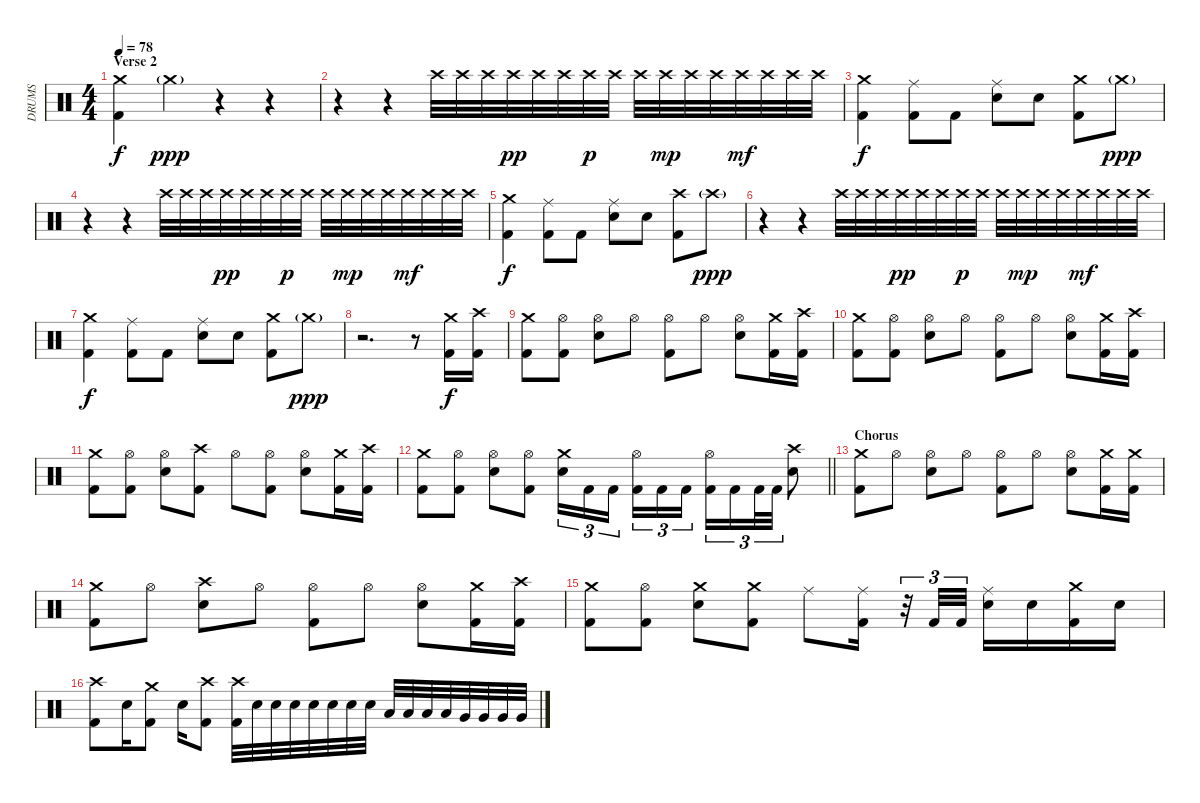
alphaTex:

\track ("DRUMS" "DRUMS") {instrument percussion}
\staff {score}
\articulation defaults
\ts (4 4)
\section ("" "Verse 2")
\tempo 78
\clef neutral
\ks c
("Crash medium (hit)" "Kick (hit) 2").4{dy f} "Crash medium (hit)"{g}.4{dy ppp} r.4 r.4 |
r.4 r.4 "Crash high (hit)".32 "Crash high (hit)".32 "Crash high (hit)".32 "Crash high (hit)".32{dy pp} "Crash high (hit)".32 "Crash high (hit)".32 "Crash high (hit)".32{dy p} "Crash high (hit)".32 "Crash high (hit)".32 "Crash high (hit)".32{dy mp} "Crash high (hit)".32 "Crash high (hit)".32 "Crash high (hit)".32{dy mf} "Crash high (hit)".32 "Crash high (hit)".32 "Crash high (hit)".32 |
("Crash medium (hit)" "Kick (hit) 2").4{dy f} ("Ride (middle)" "Kick (hit) 2").8 "Kick (hit) 2".8 ("Ride (middle)" "Snare (hit) 2").8 "Snare (hit) 2".8 ("Crash medium (hit)" "Kick (hit) 2").8 "Crash medium (hit)"{g}.8{dy ppp} |
r.4 r.4 "Crash high (hit)".32 "Crash high (hit)".32 "Crash high (hit)".32 "Crash high (hit)".32{dy pp} "Crash high (hit)".32 "Crash high (hit)".32 "Crash high (hit)".32{dy p} "Crash high (hit)".32 "Crash high (hit)".32 "Crash high (hit)".32{dy mp} "Crash high (hit)".32 "Crash high (hit)".32 "Crash high (hit)".32{dy mf} "Crash high (hit)".32 "Crash high (hit)".32 "Crash high (hit)".32 |
("Crash medium (hit)" "Kick (hit) 2").4{dy f} ("Ride (middle)" "Kick (hit) 2").8 "Kick (hit) 2".8 ("Ride (middle)" "Snare (hit) 2").8 "Snare (hit) 2".8 ("Crash high (hit)" "Kick (hit) 2").8 "Crash high (hit)"{g}.8{dy ppp} |
r.4 r.4 "Crash high (hit)".32 "Crash high (hit)".32 "Crash high (hit)".32 "Crash high (hit)".32{dy pp} "Crash high (hit)".32 "Crash high (hit)".32 "Crash high (hit)".32{dy p} "Crash high (hit)".32 "Crash high (hit)".32 "Crash high (hit)".32{dy mp} "Crash high (hit)".32 "Crash high (hit)".32 "Crash high (hit)".32{dy mf} "Crash high (hit)".32 "Crash high (hit)".32 "Crash high (hit)".32 |
("Crash medium (hit)" "Kick (hit) 2").4{dy f} ("Ride (middle)" "Kick (hit) 2").8 "Kick (hit) 2".8 ("Ride (middle)" "Snare (hit) 2").8 "Snare (hit) 2".8 ("Crash medium (hit)" "Kick (hit) 2").8 "Crash medium (hit)"{g}.8{dy ppp} |
r.2{d} r.8 ("Crash medium (hit)" "Kick (hit) 2").16{dy f} ("Crash high (hit)" "Kick (hit) 2").16 |
("Crash medium (hit)" "Kick (hit) 2").8 ("Hi-Hat (open)" "Kick (hit) 2").8 ("Hi-Hat (open)" "Snare (hit) 2").8 "Hi-Hat (open)".8 ("Hi-Hat (open)" "Kick (hit) 2").8 "Hi-Hat (open)".8 ("Hi-Hat (open)" "Snare (hit) 2").8 ("Crash medium (hit)" "Kick (hit) 2").16 ("Crash high (hit)" "Kick (hit) 2").16 |
("Crash medium (hit)" "Kick (hit) 2").8 ("Hi-Hat (open)" "Kick (hit) 2").8 ("Hi-Hat (open)" "Snare (hit) 2").8 "Hi-Hat (open)".8 ("Hi-Hat (open)" "Kick (hit) 2").8 "Hi-Hat (open)".8 ("Hi-Hat (open)" "Snare (hit) 2").8 ("Crash medium (hit)" "Kick (hit) 2").16 ("Crash high (hit)" "Kick (hit) 2").16 |
("Crash medium (hit)" "Kick (hit) 2").8 ("Hi-Hat (open)" "Kick (hit) 2").8 ("Hi-Hat (open)" "Snare (hit) 2").8 ("Crash high (hit)" "Kick (hit) 2").8 "Hi-Hat (open)".8 ("Hi-Hat (open)" "Kick (hit) 2").8 ("Hi-Hat (open)" "Snare (hit) 2").8 ("Crash medium (hit)" "Kick (hit) 2").16 ("Crash high (hit)" "Kick (hit) 2").16 |
\barLineRight lightlight
("Crash medium (hit)" "Kick (hit) 2").8 ("Hi-Hat (open)" "Kick (hit) 2").8 ("Hi-Hat (open)" "Snare (hit) 2").8 ("Hi-Hat (open)" "Kick (hit) 2").8 ("Crash medium (hit)" "Snare (hit) 2").16{tu (3 2)} "Kick (hit) 2".16{tu (3 2)} "Kick (hit) 2".16{tu (3 2) beam splitsecondary} ("Hi-Hat (open)" "Kick (hit) 2").16{tu (3 2)} "Kick (hit) 2".16{tu (3 2)} "Kick (hit) 2".16{tu (3 2)} ("Hi-Hat (open)" "Kick (hit) 2").16{tu (3 2)} "Kick (hit) 2".16{tu (3 2)} "Kick (hit) 2".32{tu (3 2)} "Kick (hit) 2".32{tu (3 2)} ("Crash high (hit)" "Snare (hit) 2").8 |
\section ("" "Chorus")
("Crash medium (hit)" "Kick (hit) 2").8 "Hi-Hat (open)".8 ("Hi-Hat (open)" "Snare (hit) 2").8 "Hi-Hat (open)".8 ("Hi-Hat (open)" "Kick (hit) 2").8 "Hi-Hat (open)".8 ("Hi-Hat (open)" "Snare (hit) 2").8 ("Crash medium (hit)" "Kick (hit) 2").16 ("Crash medium (hit)" "Kick (hit) 2").16 |
("Crash medium (hit)" "Kick (hit) 2").8 "Hi-Hat (open)".8 ("Crash high (hit)" "Snare (hit) 2").8 "Hi-Hat (open)".8 ("Hi-Hat (open)" "Kick (hit) 2").8 "Hi-Hat (open)".8 ("Hi-Hat (open)" "Snare (hit) 2").8 ("Crash medium (hit)" "Kick (hit) 2").16 ("Crash high (hit)" "Kick (hit) 2").16 |
("Crash medium (hit)" "Kick (hit) 2").8 ("Hi-Hat (open)" "Kick (hit) 2").8 ("Crash medium (hit)" "Snare (hit) 2").8 ("Crash medium (hit)" "Kick (hit) 2").8 "Ride (middle)".8 ("Ride (middle)" "Kick (hit) 2").16 r.32{tu (3 2)} "Kick (hit) 2".32{tu (3 2)} "Kick (hit) 2".32{tu (3 2)} ("Ride (middle)" "Snare (hit) 2").16 "Snare (hit) 2".16 ("Crash medium (hit)" "Kick (hit) 2").16 "Snare (hit) 2".16 |
("Crash high (hit)" "Kick (hit) 2").8 "Snare (hit) 2".16 ("Crash medium (hit)" "Kick (hit) 2").8 "Snare (hit) 2".16 ("Crash high (hit)" "Kick (hit) 2").8 ("Crash high (hit)" "Kick (hit) 2").32 "Snare (hit) 2".32 "Snare (hit) 2".32 "Snare (hit) 2".32 "Snare (hit) 2".32 "Snare (hit) 2".32 "Snare (hit) 2".32 "Snare (hit) 2".32 "Low Tom (hit)".32 "Low Tom (hit)".32 "Low Tom (hit)".32 "Low Tom (hit)".32 "Very Low Tom (hit)".32 "Very Low Tom (hit)".32 "Very Low Tom (hit)".32 "Very Low Tom (hit)".32
